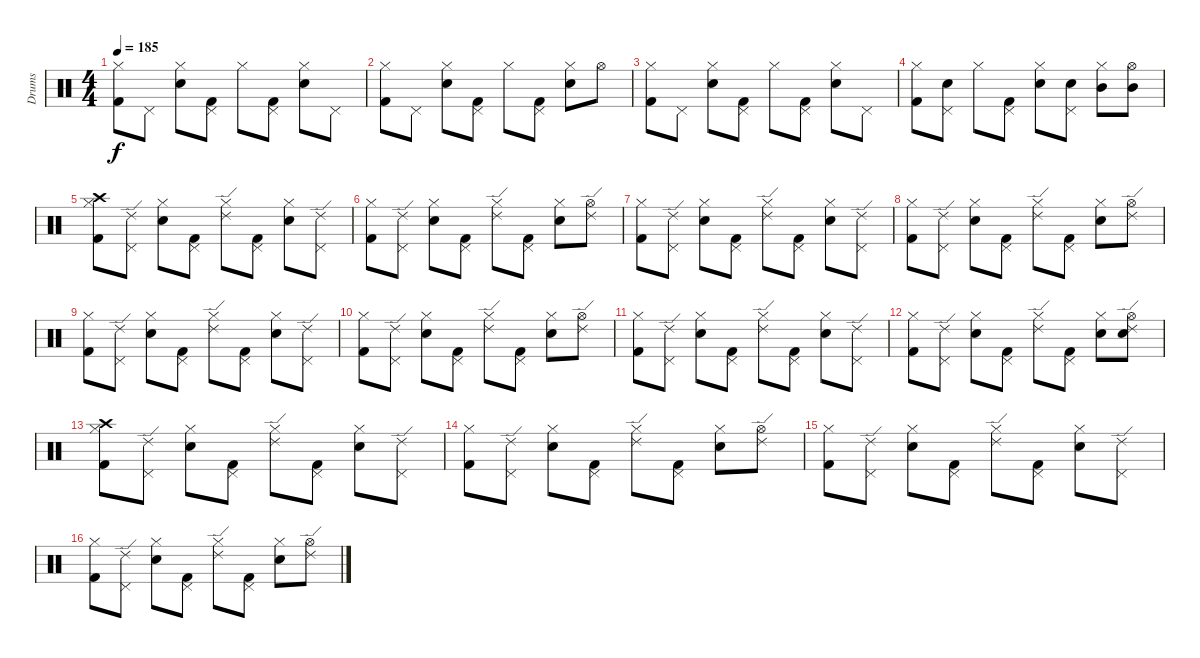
\track ("Drums" "Drums") {instrument percussion}
\staff {score}
\articulation defaults
\ts (4 4)
\tempo 185
\clef neutral
\ks c
("Kick (hit) 2" "Hi-Hat (closed)").8{dy f} "Pedal Hi-Hat (hit)".8 ("Electric Snare (hit)" "Hi-Hat (closed)").8 ("Kick (hit) 2" "Pedal Hi-Hat (hit)").8 "Hi-Hat (closed)".8 ("Kick (hit) 2" "Pedal Hi-Hat (hit)").8 ("Electric Snare (hit)" "Hi-Hat (closed)").8 "Pedal Hi-Hat (hit)".8 |
("Kick (hit) 2" "Hi-Hat (closed)").8 "Pedal Hi-Hat (hit)".8 ("Electric Snare (hit)" "Hi-Hat (closed)").8 ("Kick (hit) 2" "Pedal Hi-Hat (hit)").8 "Hi-Hat (closed)".8 ("Kick (hit) 2" "Pedal Hi-Hat (hit)").8 ("Electric Snare (hit)" "Hi-Hat (closed)").8 "Hi-Hat (open)".8 |
("Kick (hit) 2" "Hi-Hat (closed)").8 "Pedal Hi-Hat (hit)".8 ("Electric Snare (hit)" "Hi-Hat (closed)").8 ("Kick (hit) 2" "Pedal Hi-Hat (hit)").8 "Hi-Hat (closed)".8 ("Kick (hit) 2" "Pedal Hi-Hat (hit)").8 ("Electric Snare (hit)" "Hi-Hat (closed)").8 "Pedal Hi-Hat (hit)".8 |
("Kick (hit) 2" "Hi-Hat (closed)").8 ("Electric Snare (hit)" "Pedal Hi-Hat (hit)").8 "Hi-Hat (closed)".8 ("Kick (hit) 2" "Pedal Hi-Hat (hit)").8 ("Electric Snare (hit)" "Hi-Hat (closed)").8 ("Electric Snare (hit)" "Pedal Hi-Hat (hit)").8 ("Mid Tom (hit)" "Hi-Hat (closed)").8 ("Mid Tom (hit)" "Hi-Hat (open)").8 |
("Kick (hit) 2" "Crash high (hit)" "Hi-Hat (closed)").8 ("Ride (edge) 2" "Pedal Hi-Hat (hit)").8 ("Electric Snare (hit)" "Hi-Hat (closed)").8 ("Kick (hit) 2" "Pedal Hi-Hat (hit)").8 ("Ride (edge) 2" "Hi-Hat (closed)").8 ("Kick (hit) 2" "Pedal Hi-Hat (hit)").8 ("Electric Snare (hit)" "Hi-Hat (closed)").8 ("Ride (edge) 2" "Pedal Hi-Hat (hit)").8 |
("Kick (hit) 2" "Hi-Hat (closed)").8 ("Ride (edge) 2" "Pedal Hi-Hat (hit)").8 ("Electric Snare (hit)" "Hi-Hat (closed)").8 ("Kick (hit) 2" "Pedal Hi-Hat (hit)").8 ("Ride (edge) 2" "Hi-Hat (closed)").8 ("Kick (hit) 2" "Pedal Hi-Hat (hit)").8 ("Electric Snare (hit)" "Hi-Hat (closed)").8 ("Ride (edge) 2" "Hi-Hat (open)").8 |
("Kick (hit) 2" "Hi-Hat (closed)").8 ("Ride (edge) 2" "Pedal Hi-Hat (hit)").8 ("Electric Snare (hit)" "Hi-Hat (closed)").8 ("Kick (hit) 2" "Pedal Hi-Hat (hit)").8 ("Ride (edge) 2" "Hi-Hat (closed)").8 ("Kick (hit) 2" "Pedal Hi-Hat (hit)").8 ("Electric Snare (hit)" "Hi-Hat (closed)").8 ("Ride (edge) 2" "Pedal Hi-Hat (hit)").8 |
("Kick (hit) 2" "Hi-Hat (closed)").8 ("Ride (edge) 2" "Pedal Hi-Hat (hit)").8 ("Electric Snare (hit)" "Hi-Hat (closed)").8 ("Kick (hit) 2" "Pedal Hi-Hat (hit)").8 ("Ride (edge) 2" "Hi-Hat (closed)").8 ("Kick (hit) 2" "Pedal Hi-Hat (hit)").8 ("Electric Snare (hit)" "Hi-Hat (closed)").8 ("Ride (edge) 2" "Hi-Hat (open)").8 |
("Kick (hit) 2" "Hi-Hat (closed)").8 ("Ride (edge) 2" "Pedal Hi-Hat (hit)").8 ("Electric Snare (hit)" "Hi-Hat (closed)").8 ("Kick (hit) 2" "Pedal Hi-Hat (hit)").8 ("Ride (edge) 2" "Hi-Hat (closed)").8 ("Kick (hit) 2" "Pedal Hi-Hat (hit)").8 ("Electric Snare (hit)" "Hi-Hat (closed)").8 ("Ride (edge) 2" "Pedal Hi-Hat (hit)").8 |
("Kick (hit) 2" "Hi-Hat (closed)").8 ("Ride (edge) 2" "Pedal Hi-Hat (hit)").8 ("Electric Snare (hit)" "Hi-Hat (closed)").8 ("Kick (hit) 2" "Pedal Hi-Hat (hit)").8 ("Ride (edge) 2" "Hi-Hat (closed)").8 ("Kick (hit) 2" "Pedal Hi-Hat (hit)").8 ("Electric Snare (hit)" "Hi-Hat (closed)").8 ("Ride (edge) 2" "Hi-Hat (open)").8 |
("Kick (hit) 2" "Hi-Hat (closed)").8 ("Ride (edge) 2" "Pedal Hi-Hat (hit)").8 ("Electric Snare (hit)" "Hi-Hat (closed)").8 ("Kick (hit) 2" "Pedal Hi-Hat (hit)").8 ("Ride (edge) 2" "Hi-Hat (closed)").8 ("Kick (hit) 2" "Pedal Hi-Hat (hit)").8 ("Electric Snare (hit)" "Hi-Hat (closed)").8 ("Ride (edge) 2" "Pedal Hi-Hat (hit)").8 |
("Kick (hit) 2" "Hi-Hat (closed)").8 ("Ride (edge) 2" "Pedal Hi-Hat (hit)").8 ("Electric Snare (hit)" "Hi-Hat (closed)").8 ("Kick (hit) 2" "Pedal Hi-Hat (hit)").8 ("Ride (edge) 2" "Hi-Hat (closed)").8 ("Kick (hit) 2" "Pedal Hi-Hat (hit)").8 ("Electric Snare (hit)" "Hi-Hat (closed)").8 ("Electric Snare (hit)" "Ride (edge) 2" "Hi-Hat (open)").8 |
("Kick (hit) 2" "Crash high (hit)" "Hi-Hat (closed)").8 ("Ride (edge) 2" "Pedal Hi-Hat (hit)").8 ("Electric Snare (hit)" "Hi-Hat (closed)").8 ("Kick (hit) 2" "Pedal Hi-Hat (hit)").8 ("Ride (edge) 2" "Hi-Hat (closed)").8 ("Kick (hit) 2" "Pedal Hi-Hat (hit)").8 ("Electric Snare (hit)" "Hi-Hat (closed)").8 ("Ride (edge) 2" "Pedal Hi-Hat (hit)").8 |
("Kick (hit) 2" "Hi-Hat (closed)").8 ("Ride (edge) 2" "Pedal Hi-Hat (hit)").8 ("Electric Snare (hit)" "Hi-Hat (closed)").8 ("Kick (hit) 2" "Pedal Hi-Hat (hit)").8 ("Ride (edge) 2" "Hi-Hat (closed)").8 ("Kick (hit) 2" "Pedal Hi-Hat (hit)").8 ("Electric Snare (hit)" "Hi-Hat (closed)").8 ("Ride (edge) 2" "Hi-Hat (open)").8 |
("Kick (hit) 2" "Hi-Hat (closed)").8 ("Ride (edge) 2" "Pedal Hi-Hat (hit)").8 ("Electric Snare (hit)" "Hi-Hat (closed)").8 ("Kick (hit) 2" "Pedal Hi-Hat (hit)").8 ("Ride (edge) 2" "Hi-Hat (closed)").8 ("Kick (hit) 2" "Pedal Hi-Hat (hit)").8 ("Electric Snare (hit)" "Hi-Hat (closed)").8 ("Ride (edge) 2" "Pedal Hi-Hat (hit)").8 |
("Kick (hit) 2" "Hi-Hat (closed)").8 ("Ride (edge) 2" "Pedal Hi-Hat (hit)").8 ("Electric Snare (hit)" "Hi-Hat (closed)").8 ("Kick (hit) 2" "Pedal Hi-Hat (hit)").8 ("Ride (edge) 2" "Hi-Hat (closed)").8 ("Kick (hit) 2" "Pedal Hi-Hat (hit)").8 ("Electric Snare (hit)" "Hi-Hat (closed)").8 ("Ride (edge) 2" "Hi-Hat (open)").8
